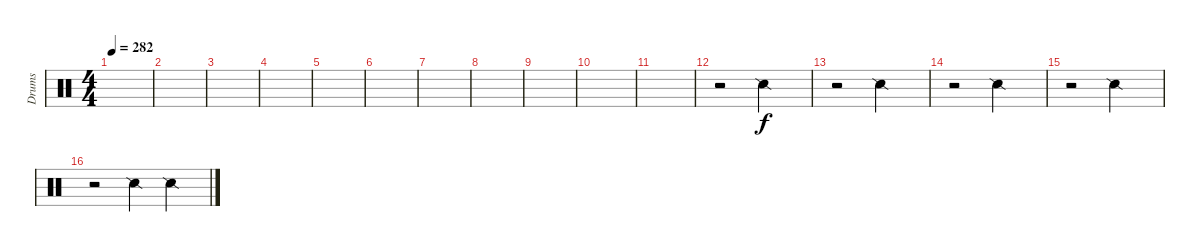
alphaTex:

\track ("Drums" "Drums") {instrument percussion}
\staff {score}
\articulation defaults
\ts (4 4)
\tempo 282
\clef neutral
\ks c
|
|
|
|
|
|
|
|
|
|
|
r.2 "Snare (side stick) 2".2 |
r.2 "Snare (side stick) 2".2 |
r.2 "Snare (side stick) 2".2 |
r.2 "Snare (side stick) 2".2 |
r.2 "Snare (side stick) 2".4 "Snare (side stick) 2".4
